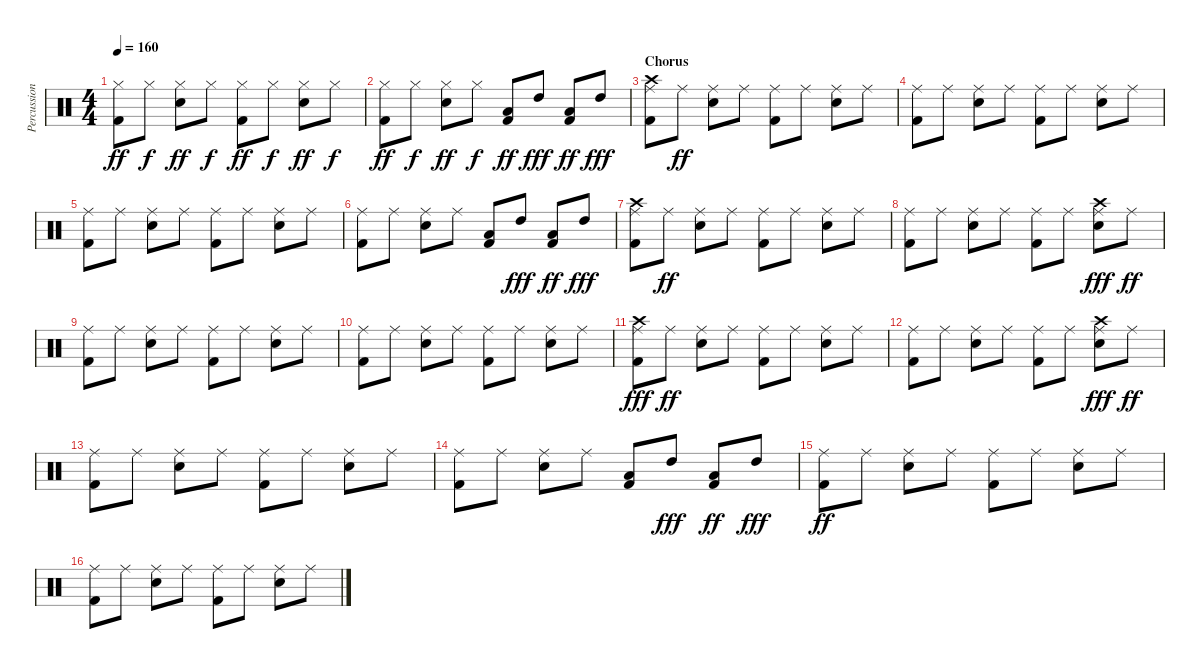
\track ("Percussion" "Percussion") {instrument percussion}
\staff {score}
\articulation defaults
\ts (4 4)
\tempo 160
\clef neutral
\ks c
("Hi-Hat (closed)" "Kick (hit) 2").8{dy ff} "Hi-Hat (closed)".8{dy f} ("Hi-Hat (closed)" "Snare (hit) 2").8{dy ff} "Hi-Hat (closed)".8{dy f} ("Hi-Hat (closed)" "Kick (hit) 2").8{dy ff} "Hi-Hat (closed)".8{dy f} ("Hi-Hat (closed)" "Snare (hit) 2").8{dy ff} "Hi-Hat (closed)".8{dy f} |
("Hi-Hat (closed)" "Kick (hit) 2").8{dy ff} "Hi-Hat (closed)".8{dy f} ("Hi-Hat (closed)" "Snare (hit) 2").8{dy ff} "Hi-Hat (closed)".8{dy f} ("Low Floor Tom (hit)" "Kick (hit) 2").8{dy ff} "High Tom (hit)".8{dy fff} ("Low Floor Tom (hit)" "Kick (hit) 2").8{dy ff} "High Tom (hit)".8{dy fff} |
\section ("" "Chorus")
("Ride (middle)" "Kick (hit) 2" "Crash high (hit)").8 "Ride (middle)".8{dy ff} ("Ride (middle)" "Snare (hit) 2").8 "Ride (middle)".8 ("Ride (middle)" "Kick (hit) 2").8 "Ride (middle)".8 ("Ride (middle)" "Snare (hit) 2").8 "Ride (middle)".8 |
("Ride (middle)" "Kick (hit) 2").8 "Ride (middle)".8 ("Ride (middle)" "Snare (hit) 2").8 "Ride (middle)".8 ("Ride (middle)" "Kick (hit) 2").8 "Ride (middle)".8 ("Ride (middle)" "Snare (hit) 2").8 "Ride (middle)".8 |
("Ride (middle)" "Kick (hit) 2").8 "Ride (middle)".8 ("Ride (middle)" "Snare (hit) 2").8 "Ride (middle)".8 ("Ride (middle)" "Kick (hit) 2").8 "Ride (middle)".8 ("Ride (middle)" "Snare (hit) 2").8 "Ride (middle)".8 |
("Ride (middle)" "Kick (hit) 2").8 "Ride (middle)".8 ("Ride (middle)" "Snare (hit) 2").8 "Ride (middle)".8 ("Low Floor Tom (hit)" "Kick (hit) 2").8 "High Tom (hit)".8{dy fff} ("Low Floor Tom (hit)" "Kick (hit) 2").8{dy ff} "High Tom (hit)".8{dy fff} |
("Ride (middle)" "Kick (hit) 2" "Crash high (hit)").8 "Ride (middle)".8{dy ff} ("Ride (middle)" "Snare (hit) 2").8 "Ride (middle)".8 ("Ride (middle)" "Kick (hit) 2").8 "Ride (middle)".8 ("Ride (middle)" "Snare (hit) 2").8 "Ride (middle)".8 |
("Ride (middle)" "Kick (hit) 2").8 "Ride (middle)".8 ("Ride (middle)" "Snare (hit) 2").8 "Ride (middle)".8 ("Ride (middle)" "Kick (hit) 2").8 "Ride (middle)".8 ("Ride (middle)" "Snare (hit) 2" "Crash high (hit)").8{dy fff} "Ride (middle)".8{dy ff} |
("Ride (middle)" "Kick (hit) 2").8 "Ride (middle)".8 ("Ride (middle)" "Snare (hit) 2").8 "Ride (middle)".8 ("Ride (middle)" "Kick (hit) 2").8 "Ride (middle)".8 ("Ride (middle)" "Snare (hit) 2").8 "Ride (middle)".8 |
("Ride (middle)" "Kick (hit) 2").8 "Ride (middle)".8 ("Ride (middle)" "Snare (hit) 2").8 "Ride (middle)".8 ("Ride (middle)" "Kick (hit) 2").8 "Ride (middle)".8 ("Ride (middle)" "Snare (hit) 2").8 "Ride (middle)".8 |
("Ride (middle)" "Kick (hit) 2" "Crash high (hit)").8{dy fff} "Ride (middle)".8{dy ff} ("Ride (middle)" "Snare (hit) 2").8 "Ride (middle)".8 ("Ride (middle)" "Kick (hit) 2").8 "Ride (middle)".8 ("Ride (middle)" "Snare (hit) 2").8 "Ride (middle)".8 |
("Ride (middle)" "Kick (hit) 2").8 "Ride (middle)".8 ("Ride (middle)" "Snare (hit) 2").8 "Ride (middle)".8 ("Ride (middle)" "Kick (hit) 2").8 "Ride (middle)".8 ("Ride (middle)" "Snare (hit) 2" "Crash high (hit)").8{dy fff} "Ride (middle)".8{dy ff} |
("Ride (middle)" "Kick (hit) 2").8 "Ride (middle)".8 ("Ride (middle)" "Snare (hit) 2").8 "Ride (middle)".8 ("Ride (middle)" "Kick (hit) 2").8 "Ride (middle)".8 ("Ride (middle)" "Snare (hit) 2").8 "Ride (middle)".8 |
("Ride (middle)" "Kick (hit) 2").8 "Ride (middle)".8 ("Ride (middle)" "Snare (hit) 2").8 "Ride (middle)".8 ("Low Floor Tom (hit)" "Kick (hit) 2").8 "High Tom (hit)".8{dy fff} ("Low Floor Tom (hit)" "Kick (hit) 2").8{dy ff} "High Tom (hit)".8{dy fff} |
("Ride (middle)" "Kick (hit) 2").8{dy ff} "Ride (middle)".8 ("Ride (middle)" "Snare (hit) 2").8 "Ride (middle)".8 ("Ride (middle)" "Kick (hit) 2").8 "Ride (middle)".8 ("Ride (middle)" "Snare (hit) 2").8 "Ride (middle)".8 |
("Ride (middle)" "Kick (hit) 2").8 "Ride (middle)".8 ("Ride (middle)" "Snare (hit) 2").8 "Ride (middle)".8 ("Ride (middle)" "Kick (hit) 2").8 "Ride (middle)".8 ("Ride (middle)" "Snare (hit) 2").8 "Ride (middle)".8
